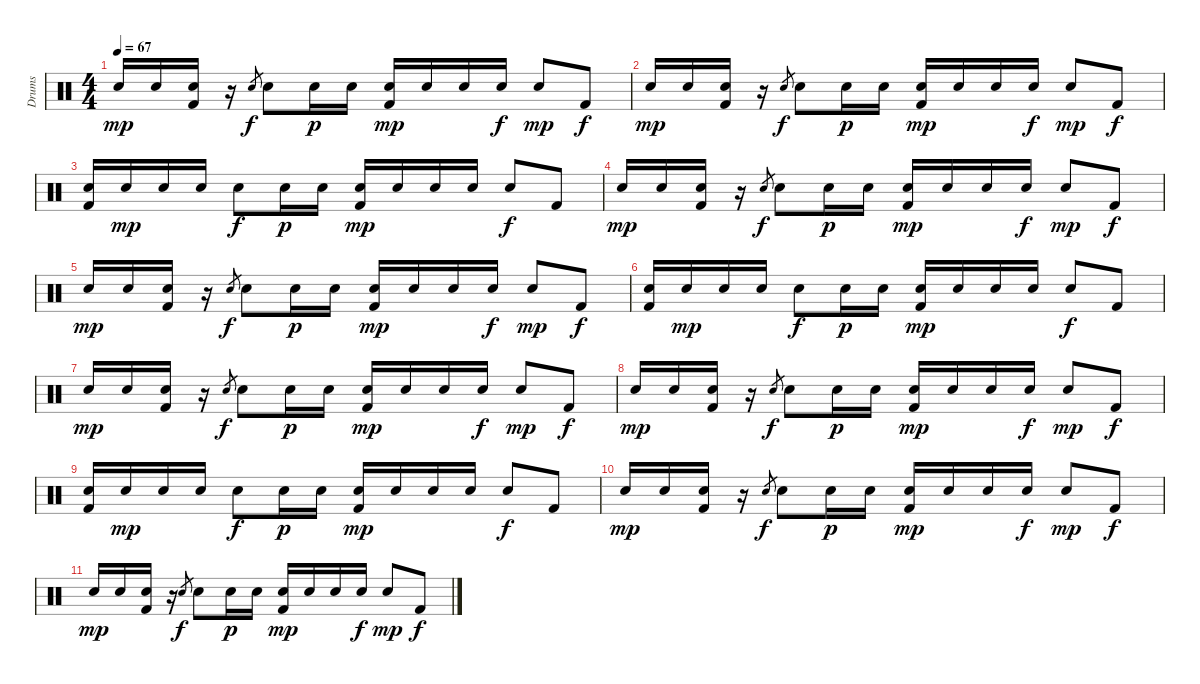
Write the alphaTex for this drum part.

\track ("Drums" "Drums") {instrument percussion}
\staff {score}
\articulation defaults
\ts (4 4)
\tempo 67
\clef neutral
\ks c "Electric Snare (hit)".16{dy mp} "Electric Snare (hit)".16
("Electric Snare (hit)" "Kick (hit) 2").16 r.16 "Electric Snare (hit)".8{gr dy f} "Electric Snare (hit)".8 "Electric Snare (hit)".16{dy p} "Electric Snare (hit)".16 ("Electric Snare (hit)" "Kick (hit) 2").16{dy mp} "Electric Snare (hit)".16 "Electric Snare (hit)".16 "Electric Snare (hit)".16{dy f} "Electric Snare (hit)".8{dy mp} "Kick (hit) 2".8{dy f} |
"Electric Snare (hit)".16{dy mp} "Electric Snare (hit)".16 ("Electric Snare (hit)" "Kick (hit) 2").16 r.16 "Electric Snare (hit)".8{gr dy f} "Electric Snare (hit)".8 "Electric Snare (hit)".16{dy p} "Electric Snare (hit)".16 ("Electric Snare (hit)" "Kick (hit) 2").16{dy mp} "Electric Snare (hit)".16 "Electric Snare (hit)".16 "Electric Snare (hit)".16{dy f} "Electric Snare (hit)".8{dy mp} "Kick (hit) 2".8{dy f} |
("Electric Snare (hit)" "Kick (hit) 2").16 "Electric Snare (hit)".16{dy mp} "Electric Snare (hit)".16 "Electric Snare (hit)".16 "Electric Snare (hit)".8{dy f} "Electric Snare (hit)".16{dy p} "Electric Snare (hit)".16 ("Electric Snare (hit)" "Kick (hit) 2").16{dy mp} "Electric Snare (hit)".16 "Electric Snare (hit)".16 "Electric Snare (hit)".16 "Electric Snare (hit)".8{dy f} "Kick (hit) 2".8 |
"Electric Snare (hit)".16{dy mp} "Electric Snare (hit)".16 ("Electric Snare (hit)" "Kick (hit) 2").16 r.16 "Electric Snare (hit)".8{gr dy f} "Electric Snare (hit)".8 "Electric Snare (hit)".16{dy p} "Electric Snare (hit)".16 ("Electric Snare (hit)" "Kick (hit) 2").16{dy mp} "Electric Snare (hit)".16 "Electric Snare (hit)".16 "Electric Snare (hit)".16{dy f} "Electric Snare (hit)".8{dy mp} "Kick (hit) 2".8{dy f} |
"Electric Snare (hit)".16{dy mp} "Electric Snare (hit)".16 ("Electric Snare (hit)" "Kick (hit) 2").16 r.16 "Electric Snare (hit)".8{gr dy f} "Electric Snare (hit)".8 "Electric Snare (hit)".16{dy p} "Electric Snare (hit)".16 ("Electric Snare (hit)" "Kick (hit) 2").16{dy mp} "Electric Snare (hit)".16 "Electric Snare (hit)".16 "Electric Snare (hit)".16{dy f} "Electric Snare (hit)".8{dy mp} "Kick (hit) 2".8{dy f} |
("Electric Snare (hit)" "Kick (hit) 2").16 "Electric Snare (hit)".16{dy mp} "Electric Snare (hit)".16 "Electric Snare (hit)".16 "Electric Snare (hit)".8{dy f} "Electric Snare (hit)".16{dy p} "Electric Snare (hit)".16 ("Electric Snare (hit)" "Kick (hit) 2").16{dy mp} "Electric Snare (hit)".16 "Electric Snare (hit)".16 "Electric Snare (hit)".16 "Electric Snare (hit)".8{dy f} "Kick (hit) 2".8 |
"Electric Snare (hit)".16{dy mp} "Electric Snare (hit)".16 ("Electric Snare (hit)" "Kick (hit) 2").16 r.16 "Electric Snare (hit)".8{gr dy f} "Electric Snare (hit)".8 "Electric Snare (hit)".16{dy p} "Electric Snare (hit)".16 ("Electric Snare (hit)" "Kick (hit) 2").16{dy mp} "Electric Snare (hit)".16 "Electric Snare (hit)".16 "Electric Snare (hit)".16{dy f} "Electric Snare (hit)".8{dy mp} "Kick (hit) 2".8{dy f} |
"Electric Snare (hit)".16{dy mp} "Electric Snare (hit)".16 ("Electric Snare (hit)" "Kick (hit) 2").16 r.16 "Electric Snare (hit)".8{gr dy f} "Electric Snare (hit)".8 "Electric Snare (hit)".16{dy p} "Electric Snare (hit)".16 ("Electric Snare (hit)" "Kick (hit) 2").16{dy mp} "Electric Snare (hit)".16 "Electric Snare (hit)".16 "Electric Snare (hit)".16{dy f} "Electric Snare (hit)".8{dy mp} "Kick (hit) 2".8{dy f} |
("Electric Snare (hit)" "Kick (hit) 2").16 "Electric Snare (hit)".16{dy mp} "Electric Snare (hit)".16 "Electric Snare (hit)".16 "Electric Snare (hit)".8{dy f} "Electric Snare (hit)".16{dy p} "Electric Snare (hit)".16 ("Electric Snare (hit)" "Kick (hit) 2").16{dy mp} "Electric Snare (hit)".16 "Electric Snare (hit)".16 "Electric Snare (hit)".16 "Electric Snare (hit)".8{dy f} "Kick (hit) 2".8 |
"Electric Snare (hit)".16{dy mp} "Electric Snare (hit)".16 ("Electric Snare (hit)" "Kick (hit) 2").16 r.16 "Electric Snare (hit)".8{gr dy f} "Electric Snare (hit)".8 "Electric Snare (hit)".16{dy p} "Electric Snare (hit)".16 ("Electric Snare (hit)" "Kick (hit) 2").16{dy mp} "Electric Snare (hit)".16 "Electric Snare (hit)".16 "Electric Snare (hit)".16{dy f} "Electric Snare (hit)".8{dy mp} "Kick (hit) 2".8{dy f} |
"Electric Snare (hit)".16{dy mp} "Electric Snare (hit)".16 ("Electric Snare (hit)" "Kick (hit) 2").16 r.16 "Electric Snare (hit)".8{gr dy f} "Electric Snare (hit)".8 "Electric Snare (hit)".16{dy p} "Electric Snare (hit)".16 ("Electric Snare (hit)" "Kick (hit) 2").16{dy mp} "Electric Snare (hit)".16 "Electric Snare (hit)".16 "Electric Snare (hit)".16{dy f} "Electric Snare (hit)".8{dy mp} "Kick (hit) 2".8{dy f}
